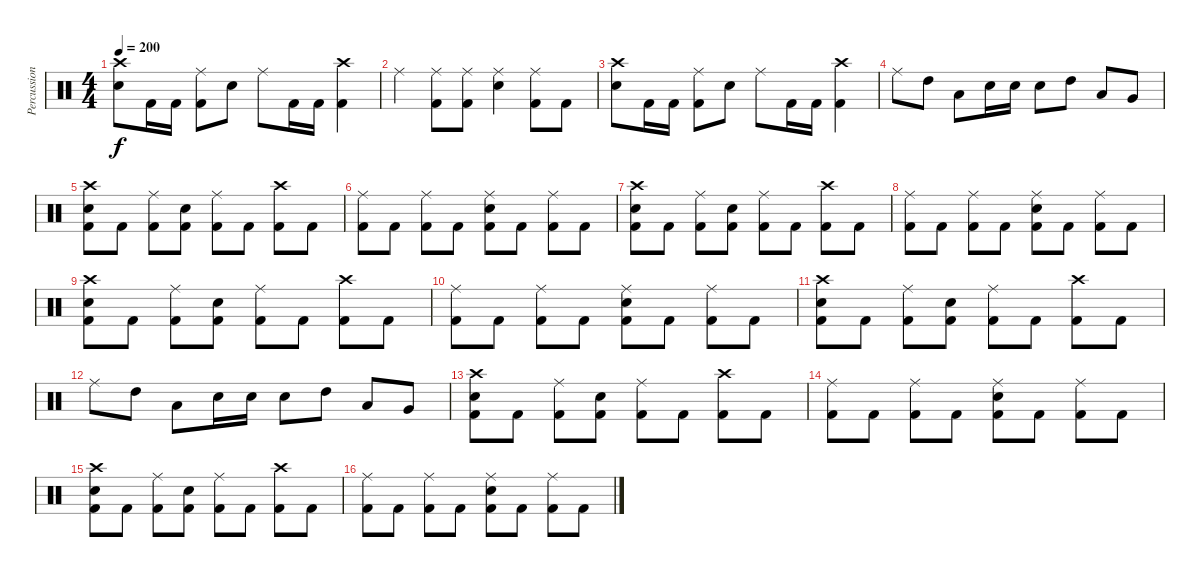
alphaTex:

\track ("Percussion" "Percussion") {instrument percussion}
\staff {score}
\articulation defaults
\ts (4 4)
\tempo 200
\clef neutral
\ks c
("Crash high (hit)" "Snare (hit) 2").8{dy f} "Kick (hit) 2".16 "Kick (hit) 2".16 ("Ride (middle)" "Kick (hit) 2").8 "Snare (hit) 2".8 "Ride (middle)".8 "Kick (hit) 2".16 "Kick (hit) 2".16 ("Crash high (hit)" "Kick (hit) 2").4 |
"Ride (middle)".4 ("Ride (middle)" "Kick (hit) 2").8 ("Ride (middle)" "Kick (hit) 2").8 ("Ride (middle)" "Snare (hit) 2").4 ("Ride (middle)" "Kick (hit) 2").8 "Kick (hit) 2".8 |
("Crash high (hit)" "Snare (hit) 2").8 "Kick (hit) 2".16 "Kick (hit) 2".16 ("Ride (middle)" "Kick (hit) 2").8 "Snare (hit) 2".8 "Ride (middle)".8 "Kick (hit) 2".16 "Kick (hit) 2".16 ("Crash high (hit)" "Kick (hit) 2").4 |
"Ride (middle)".8 "High Tom (hit)".8 "Low Tom (hit)".8 "Snare (hit) 2".16 "Snare (hit) 2".16 "Snare (hit) 2".8 "High Tom (hit)".8 "Low Tom (hit)".8 "Very Low Tom (hit)".8 |
("Crash high (hit)" "Snare (hit) 2" "Kick (hit) 2").8 "Kick (hit) 2".8 ("Ride (middle)" "Kick (hit) 2").8 ("Snare (hit) 2" "Kick (hit) 2").8 ("Ride (middle)" "Kick (hit) 2").8 "Kick (hit) 2".8 ("Crash high (hit)" "Kick (hit) 2").8 "Kick (hit) 2".8 |
("Ride (middle)" "Kick (hit) 2").8 "Kick (hit) 2".8 ("Ride (middle)" "Kick (hit) 2").8 "Kick (hit) 2".8 ("Ride (middle)" "Snare (hit) 2" "Kick (hit) 2").8 "Kick (hit) 2".8 ("Ride (middle)" "Kick (hit) 2").8 "Kick (hit) 2".8 |
("Crash high (hit)" "Snare (hit) 2" "Kick (hit) 2").8 "Kick (hit) 2".8 ("Ride (middle)" "Kick (hit) 2").8 ("Snare (hit) 2" "Kick (hit) 2").8 ("Ride (middle)" "Kick (hit) 2").8 "Kick (hit) 2".8 ("Crash high (hit)" "Kick (hit) 2").8 "Kick (hit) 2".8 |
("Ride (middle)" "Kick (hit) 2").8 "Kick (hit) 2".8 ("Ride (middle)" "Kick (hit) 2").8 "Kick (hit) 2".8 ("Ride (middle)" "Snare (hit) 2" "Kick (hit) 2").8 "Kick (hit) 2".8 ("Ride (middle)" "Kick (hit) 2").8 "Kick (hit) 2".8 |
("Crash high (hit)" "Snare (hit) 2" "Kick (hit) 2").8 "Kick (hit) 2".8 ("Ride (middle)" "Kick (hit) 2").8 ("Snare (hit) 2" "Kick (hit) 2").8 ("Ride (middle)" "Kick (hit) 2").8 "Kick (hit) 2".8 ("Crash high (hit)" "Kick (hit) 2").8 "Kick (hit) 2".8 |
("Ride (middle)" "Kick (hit) 2").8 "Kick (hit) 2".8 ("Ride (middle)" "Kick (hit) 2").8 "Kick (hit) 2".8 ("Ride (middle)" "Snare (hit) 2" "Kick (hit) 2").8 "Kick (hit) 2".8 ("Ride (middle)" "Kick (hit) 2").8 "Kick (hit) 2".8 |
("Crash high (hit)" "Snare (hit) 2" "Kick (hit) 2").8 "Kick (hit) 2".8 ("Ride (middle)" "Kick (hit) 2").8 ("Snare (hit) 2" "Kick (hit) 2").8 ("Ride (middle)" "Kick (hit) 2").8 "Kick (hit) 2".8 ("Crash high (hit)" "Kick (hit) 2").8 "Kick (hit) 2".8 |
"Ride (middle)".8 "High Tom (hit)".8 "Low Tom (hit)".8 "Snare (hit) 2".16 "Snare (hit) 2".16 "Snare (hit) 2".8 "High Tom (hit)".8 "Low Tom (hit)".8 "Very Low Tom (hit)".8 |
("Crash high (hit)" "Snare (hit) 2" "Kick (hit) 2").8 "Kick (hit) 2".8 ("Ride (middle)" "Kick (hit) 2").8 ("Snare (hit) 2" "Kick (hit) 2").8 ("Ride (middle)" "Kick (hit) 2").8 "Kick (hit) 2".8 ("Crash high (hit)" "Kick (hit) 2").8 "Kick (hit) 2".8 |
("Ride (middle)" "Kick (hit) 2").8 "Kick (hit) 2".8 ("Ride (middle)" "Kick (hit) 2").8 "Kick (hit) 2".8 ("Ride (middle)" "Snare (hit) 2" "Kick (hit) 2").8 "Kick (hit) 2".8 ("Ride (middle)" "Kick (hit) 2").8 "Kick (hit) 2".8 |
("Crash high (hit)" "Snare (hit) 2" "Kick (hit) 2").8 "Kick (hit) 2".8 ("Ride (middle)" "Kick (hit) 2").8 ("Snare (hit) 2" "Kick (hit) 2").8 ("Ride (middle)" "Kick (hit) 2").8 "Kick (hit) 2".8 ("Crash high (hit)" "Kick (hit) 2").8 "Kick (hit) 2".8 |
("Ride (middle)" "Kick (hit) 2").8 "Kick (hit) 2".8 ("Ride (middle)" "Kick (hit) 2").8 "Kick (hit) 2".8 ("Ride (middle)" "Snare (hit) 2" "Kick (hit) 2").8 "Kick (hit) 2".8 ("Ride (middle)" "Kick (hit) 2").8 "Kick (hit) 2".8
